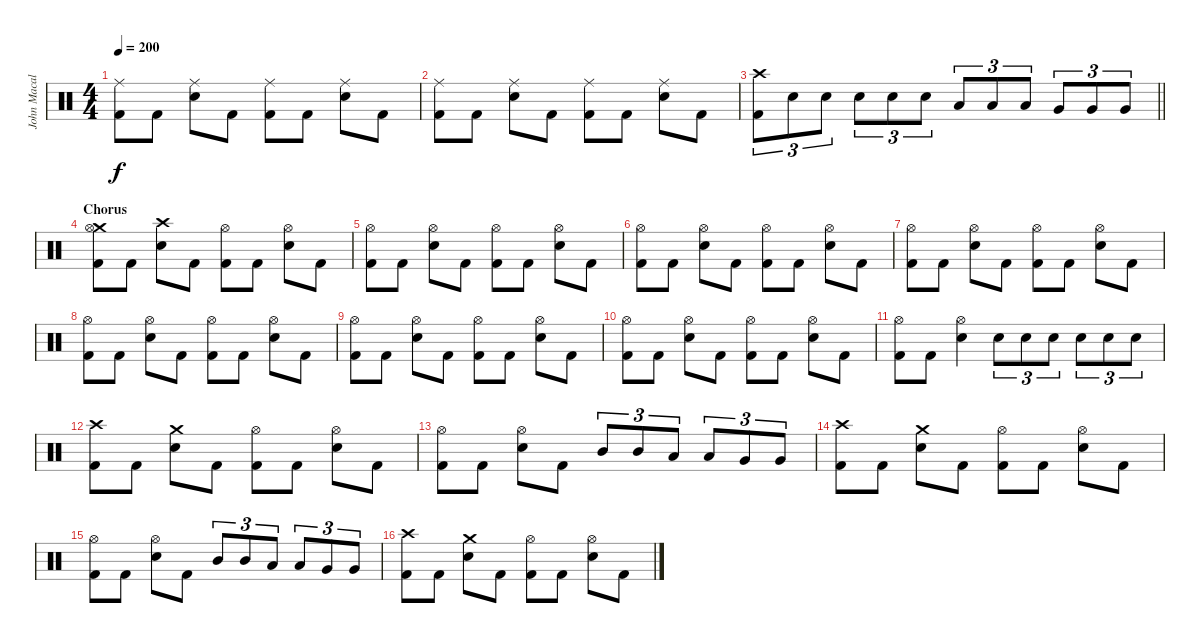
\track ("John Macaluso" "John Macal") {instrument percussion}
\staff {score}
\articulation defaults
\ts (4 4)
\tempo 200
\clef neutral
\ks c
("Ride (middle)" "Kick (hit) 2").8{dy f} "Kick (hit) 2".8 ("Ride (middle)" "Snare (hit) 2").8 "Kick (hit) 2".8 ("Ride (middle)" "Kick (hit) 2").8 "Kick (hit) 2".8 ("Ride (middle)" "Snare (hit) 2").8 "Kick (hit) 2".8 |
("Ride (middle)" "Kick (hit) 2").8 "Kick (hit) 2".8 ("Ride (middle)" "Snare (hit) 2").8 "Kick (hit) 2".8 ("Ride (middle)" "Kick (hit) 2").8 "Kick (hit) 2".8 ("Ride (middle)" "Snare (hit) 2").8 "Kick (hit) 2".8 |
\barLineRight lightlight
("Crash high (hit)" "Kick (hit) 2").8{tu (3 2)} "Snare (hit) 2".8{tu (3 2)} "Snare (hit) 2".8{tu (3 2)} "Snare (hit) 2".8{tu (3 2)} "Snare (hit) 2".8{tu (3 2)} "Snare (hit) 2".8{tu (3 2)} "Low Tom (hit)".8{tu (3 2)} "Low Tom (hit)".8{tu (3 2)} "Low Tom (hit)".8{tu (3 2)} "Very Low Tom (hit)".8{tu (3 2)} "Very Low Tom (hit)".8{tu (3 2)} "Very Low Tom (hit)".8{tu (3 2)} |
\section ("" "Chorus")
("Crash medium (hit)" "Hi-Hat (open)" "Kick (hit) 2").8 "Kick (hit) 2".8 ("Crash high (hit)" "Snare (hit) 2").8 "Kick (hit) 2".8 ("Hi-Hat (open)" "Kick (hit) 2").8 "Kick (hit) 2".8 ("Hi-Hat (open)" "Snare (hit) 2").8 "Kick (hit) 2".8 |
("Hi-Hat (open)" "Kick (hit) 2").8 "Kick (hit) 2".8 ("Hi-Hat (open)" "Snare (hit) 2").8 "Kick (hit) 2".8 ("Hi-Hat (open)" "Kick (hit) 2").8 "Kick (hit) 2".8 ("Hi-Hat (open)" "Snare (hit) 2").8 "Kick (hit) 2".8 |
("Hi-Hat (open)" "Kick (hit) 2").8 "Kick (hit) 2".8 ("Hi-Hat (open)" "Snare (hit) 2").8 "Kick (hit) 2".8 ("Hi-Hat (open)" "Kick (hit) 2").8 "Kick (hit) 2".8 ("Hi-Hat (open)" "Snare (hit) 2").8 "Kick (hit) 2".8 |
("Hi-Hat (open)" "Kick (hit) 2").8 "Kick (hit) 2".8 ("Hi-Hat (open)" "Snare (hit) 2").8 "Kick (hit) 2".8 ("Hi-Hat (open)" "Kick (hit) 2").8 "Kick (hit) 2".8 ("Hi-Hat (open)" "Snare (hit) 2").8 "Kick (hit) 2".8 |
("Hi-Hat (open)" "Kick (hit) 2").8 "Kick (hit) 2".8 ("Hi-Hat (open)" "Snare (hit) 2").8 "Kick (hit) 2".8 ("Hi-Hat (open)" "Kick (hit) 2").8 "Kick (hit) 2".8 ("Hi-Hat (open)" "Snare (hit) 2").8 "Kick (hit) 2".8 |
("Hi-Hat (open)" "Kick (hit) 2").8 "Kick (hit) 2".8 ("Hi-Hat (open)" "Snare (hit) 2").8 "Kick (hit) 2".8 ("Hi-Hat (open)" "Kick (hit) 2").8 "Kick (hit) 2".8 ("Hi-Hat (open)" "Snare (hit) 2").8 "Kick (hit) 2".8 |
("Hi-Hat (open)" "Kick (hit) 2").8 "Kick (hit) 2".8 ("Hi-Hat (open)" "Snare (hit) 2").8 "Kick (hit) 2".8 ("Hi-Hat (open)" "Kick (hit) 2").8 "Kick (hit) 2".8 ("Hi-Hat (open)" "Snare (hit) 2").8 "Kick (hit) 2".8 |
("Hi-Hat (open)" "Kick (hit) 2").8 "Kick (hit) 2".8 ("Hi-Hat (open)" "Snare (hit) 2").4 "Snare (hit) 2".8{tu (3 2)} "Snare (hit) 2".8{tu (3 2)} "Snare (hit) 2".8{tu (3 2)} "Snare (hit) 2".8{tu (3 2)} "Snare (hit) 2".8{tu (3 2)} "Snare (hit) 2".8{tu (3 2)} |
("Crash high (hit)" "Kick (hit) 2").8 "Kick (hit) 2".8 ("Crash medium (hit)" "Snare (hit) 2").8 "Kick (hit) 2".8 ("Hi-Hat (open)" "Kick (hit) 2").8 "Kick (hit) 2".8 ("Hi-Hat (open)" "Snare (hit) 2").8 "Kick (hit) 2".8 |
("Hi-Hat (open)" "Kick (hit) 2").8 "Kick (hit) 2".8 ("Hi-Hat (open)" "Snare (hit) 2").8 "Kick (hit) 2".8 "Mid Tom (hit)".8{tu (3 2)} "Mid Tom (hit)".8{tu (3 2)} "Low Tom (hit)".8{tu (3 2)} "Low Tom (hit)".8{tu (3 2)} "Very Low Tom (hit)".8{tu (3 2)} "Very Low Tom (hit)".8{tu (3 2)} |
("Crash high (hit)" "Kick (hit) 2").8 "Kick (hit) 2".8 ("Crash medium (hit)" "Snare (hit) 2").8 "Kick (hit) 2".8 ("Hi-Hat (open)" "Kick (hit) 2").8 "Kick (hit) 2".8 ("Hi-Hat (open)" "Snare (hit) 2").8 "Kick (hit) 2".8 |
("Hi-Hat (open)" "Kick (hit) 2").8 "Kick (hit) 2".8 ("Hi-Hat (open)" "Snare (hit) 2").8 "Kick (hit) 2".8 "Mid Tom (hit)".8{tu (3 2)} "Mid Tom (hit)".8{tu (3 2)} "Low Tom (hit)".8{tu (3 2)} "Low Tom (hit)".8{tu (3 2)} "Very Low Tom (hit)".8{tu (3 2)} "Very Low Tom (hit)".8{tu (3 2)} |
("Crash high (hit)" "Kick (hit) 2").8 "Kick (hit) 2".8 ("Crash medium (hit)" "Snare (hit) 2").8 "Kick (hit) 2".8 ("Hi-Hat (open)" "Kick (hit) 2").8 "Kick (hit) 2".8 ("Hi-Hat (open)" "Snare (hit) 2").8 "Kick (hit) 2".8
